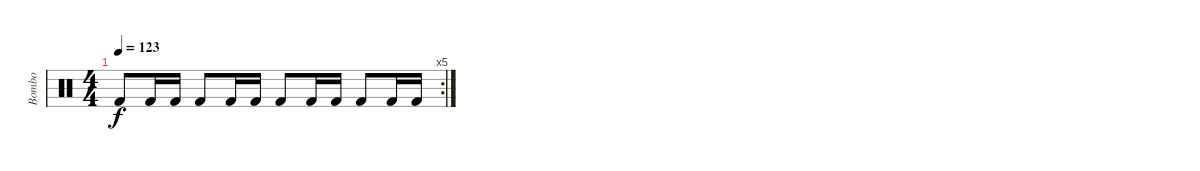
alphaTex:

\track ("Bombo" "Bombo") {instrument percussion}
\staff {score}
\articulation defaults
\rc 5
\ts (4 4)
\tempo 123
\clef neutral
\ks c "Kick (hit) 2".8{dy f} "Kick (hit) 2".16 "Kick (hit) 2".16 "Kick (hit) 2".8 "Kick (hit) 2".16 "Kick (hit) 2".16 "Kick (hit) 2".8 "Kick (hit) 2".16 "Kick (hit) 2".16 "Kick (hit) 2".8 "Kick (hit) 2".16 "Kick (hit) 2".16
